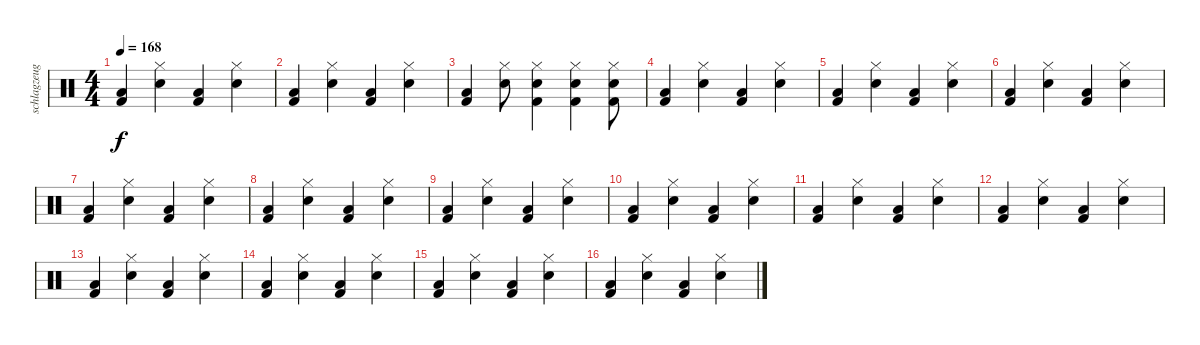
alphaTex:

\track ("schlagzeug" "schlagzeug") {instrument percussion}
\staff {score}
\articulation defaults
\ts (4 4)
\tempo 168
\clef neutral
\ks c
("Low Floor Tom (hit)" "Kick (hit) 2").4{dy f} ("Electric Snare (hit)" "Hi-Hat (closed)").4 ("Low Floor Tom (hit)" "Kick (hit) 2").4 ("Electric Snare (hit)" "Hi-Hat (closed)").4 |
("Low Floor Tom (hit)" "Kick (hit) 2").4 ("Electric Snare (hit)" "Hi-Hat (closed)").4 ("Low Floor Tom (hit)" "Kick (hit) 2").4 ("Electric Snare (hit)" "Hi-Hat (closed)").4 |
("Low Floor Tom (hit)" "Kick (hit) 2").4 ("Electric Snare (hit)" "Hi-Hat (closed)").8 ("Electric Snare (hit)" "Hi-Hat (closed)" "Kick (hit) 2").4 ("Electric Snare (hit)" "Hi-Hat (closed)" "Kick (hit) 2").4 ("Electric Snare (hit)" "Hi-Hat (closed)" "Kick (hit) 2").8 |
("Low Floor Tom (hit)" "Kick (hit) 2").4 ("Electric Snare (hit)" "Hi-Hat (closed)").4 ("Low Floor Tom (hit)" "Kick (hit) 2").4 ("Electric Snare (hit)" "Hi-Hat (closed)").4 |
("Low Floor Tom (hit)" "Kick (hit) 2").4 ("Electric Snare (hit)" "Hi-Hat (closed)").4 ("Low Floor Tom (hit)" "Kick (hit) 2").4 ("Electric Snare (hit)" "Hi-Hat (closed)").4 |
("Low Floor Tom (hit)" "Kick (hit) 2").4 ("Electric Snare (hit)" "Hi-Hat (closed)").4 ("Low Floor Tom (hit)" "Kick (hit) 2").4 ("Electric Snare (hit)" "Hi-Hat (closed)").4 |
("Low Floor Tom (hit)" "Kick (hit) 2").4 ("Electric Snare (hit)" "Hi-Hat (closed)").4 ("Low Floor Tom (hit)" "Kick (hit) 2").4 ("Electric Snare (hit)" "Hi-Hat (closed)").4 |
("Low Floor Tom (hit)" "Kick (hit) 2").4 ("Electric Snare (hit)" "Hi-Hat (closed)").4 ("Low Floor Tom (hit)" "Kick (hit) 2").4 ("Electric Snare (hit)" "Hi-Hat (closed)").4 |
("Low Floor Tom (hit)" "Kick (hit) 2").4 ("Electric Snare (hit)" "Hi-Hat (closed)").4 ("Low Floor Tom (hit)" "Kick (hit) 2").4 ("Electric Snare (hit)" "Hi-Hat (closed)").4 |
("Low Floor Tom (hit)" "Kick (hit) 2").4 ("Electric Snare (hit)" "Hi-Hat (closed)").4 ("Low Floor Tom (hit)" "Kick (hit) 2").4 ("Electric Snare (hit)" "Hi-Hat (closed)").4 |
("Low Floor Tom (hit)" "Kick (hit) 2").4 ("Electric Snare (hit)" "Hi-Hat (closed)").4 ("Low Floor Tom (hit)" "Kick (hit) 2").4 ("Electric Snare (hit)" "Hi-Hat (closed)").4 |
("Low Floor Tom (hit)" "Kick (hit) 2").4 ("Electric Snare (hit)" "Hi-Hat (closed)").4 ("Low Floor Tom (hit)" "Kick (hit) 2").4 ("Electric Snare (hit)" "Hi-Hat (closed)").4 |
("Low Floor Tom (hit)" "Kick (hit) 2").4 ("Electric Snare (hit)" "Hi-Hat (closed)").4 ("Low Floor Tom (hit)" "Kick (hit) 2").4 ("Electric Snare (hit)" "Hi-Hat (closed)").4 |
("Low Floor Tom (hit)" "Kick (hit) 2").4 ("Electric Snare (hit)" "Hi-Hat (closed)").4 ("Low Floor Tom (hit)" "Kick (hit) 2").4 ("Electric Snare (hit)" "Hi-Hat (closed)").4 |
("Low Floor Tom (hit)" "Kick (hit) 2").4 ("Electric Snare (hit)" "Hi-Hat (closed)").4 ("Low Floor Tom (hit)" "Kick (hit) 2").4 ("Electric Snare (hit)" "Hi-Hat (closed)").4 |
("Low Floor Tom (hit)" "Kick (hit) 2").4 ("Electric Snare (hit)" "Hi-Hat (closed)").4 ("Low Floor Tom (hit)" "Kick (hit) 2").4 ("Electric Snare (hit)" "Hi-Hat (closed)").4
